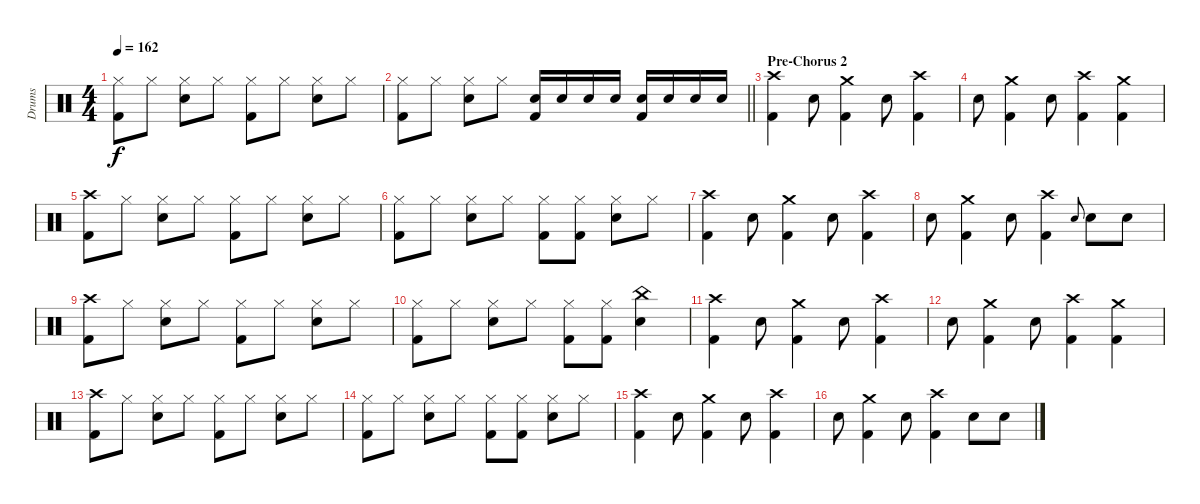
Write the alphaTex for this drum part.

\track ("Drums" "Drums") {instrument percussion}
\staff {score}
\articulation defaults
\ts (4 4)
\tempo 162
\clef neutral
\ks c
("Hi-Hat (closed)" "Kick (hit) 2").8{dy f} "Hi-Hat (closed)".8 ("Hi-Hat (closed)" "Electric Snare (hit)").8 "Hi-Hat (closed)".8 ("Hi-Hat (closed)" "Kick (hit) 2").8 "Hi-Hat (closed)".8 ("Hi-Hat (closed)" "Electric Snare (hit)").8 "Hi-Hat (closed)".8 |
\barLineRight lightlight
("Hi-Hat (closed)" "Kick (hit) 2").8 "Hi-Hat (closed)".8 ("Hi-Hat (closed)" "Electric Snare (hit)").8 "Hi-Hat (closed)".8 ("Electric Snare (hit)" "Kick (hit) 2").16 "Electric Snare (hit)".16 "Electric Snare (hit)".16 "Electric Snare (hit)".16 ("Electric Snare (hit)" "Kick (hit) 2").16 "Electric Snare (hit)".16 "Electric Snare (hit)".16 "Electric Snare (hit)".16 |
\section ("" "Pre-Chorus 2")
("Crash high (hit)" "Kick (hit) 2").4 "Electric Snare (hit)".8 ("Crash medium (hit)" "Kick (hit) 2").4 "Electric Snare (hit)".8 ("Crash high (hit)" "Kick (hit) 2").4 |
"Electric Snare (hit)".8 ("Crash medium (hit)" "Kick (hit) 2").4 "Electric Snare (hit)".8 ("Crash high (hit)" "Kick (hit) 2").4 ("Crash medium (hit)" "Kick (hit) 2").4 |
("Crash high (hit)" "Kick (hit) 2").8 "Hi-Hat (closed)".8 ("Hi-Hat (closed)" "Electric Snare (hit)").8 "Hi-Hat (closed)".8 ("Hi-Hat (closed)" "Kick (hit) 2").8 "Hi-Hat (closed)".8 ("Hi-Hat (closed)" "Electric Snare (hit)").8 "Hi-Hat (closed)".8 |
("Hi-Hat (closed)" "Kick (hit) 2").8 "Hi-Hat (closed)".8 ("Hi-Hat (closed)" "Electric Snare (hit)").8 "Hi-Hat (closed)".8 ("Hi-Hat (closed)" "Kick (hit) 2").8 ("Hi-Hat (closed)" "Kick (hit) 2").8 ("Hi-Hat (closed)" "Electric Snare (hit)").8 "Hi-Hat (closed)".8 |
("Crash high (hit)" "Kick (hit) 2").4 "Electric Snare (hit)".8 ("Crash medium (hit)" "Kick (hit) 2").4 "Electric Snare (hit)".8 ("Crash high (hit)" "Kick (hit) 2").4 |
"Electric Snare (hit)".8 ("Crash medium (hit)" "Kick (hit) 2").4 "Electric Snare (hit)".8 ("Crash high (hit)" "Kick (hit) 2").4 "Electric Snare (hit)".8{gr onbeat} "Electric Snare (hit)".8 "Electric Snare (hit)".8 |
("Crash high (hit)" "Kick (hit) 2").8 "Hi-Hat (closed)".8 ("Hi-Hat (closed)" "Electric Snare (hit)").8 "Hi-Hat (closed)".8 ("Hi-Hat (closed)" "Kick (hit) 2").8 "Hi-Hat (closed)".8 ("Hi-Hat (closed)" "Electric Snare (hit)").8 "Hi-Hat (closed)".8 |
("Hi-Hat (closed)" "Kick (hit) 2").8 "Hi-Hat (closed)".8 ("Hi-Hat (closed)" "Electric Snare (hit)").8 "Hi-Hat (closed)".8 ("Hi-Hat (closed)" "Kick (hit) 2").8 ("Hi-Hat (closed)" "Kick (hit) 2").8 ("China (hit)" "Electric Snare (hit)").4 |
("Crash high (hit)" "Kick (hit) 2").4 "Electric Snare (hit)".8 ("Crash medium (hit)" "Kick (hit) 2").4 "Electric Snare (hit)".8 ("Crash high (hit)" "Kick (hit) 2").4 |
"Electric Snare (hit)".8 ("Crash medium (hit)" "Kick (hit) 2").4 "Electric Snare (hit)".8 ("Crash high (hit)" "Kick (hit) 2").4 ("Crash medium (hit)" "Kick (hit) 2").4 |
("Crash high (hit)" "Kick (hit) 2").8 "Hi-Hat (closed)".8 ("Hi-Hat (closed)" "Electric Snare (hit)").8 "Hi-Hat (closed)".8 ("Hi-Hat (closed)" "Kick (hit) 2").8 "Hi-Hat (closed)".8 ("Hi-Hat (closed)" "Electric Snare (hit)").8 "Hi-Hat (closed)".8 |
("Hi-Hat (closed)" "Kick (hit) 2").8 "Hi-Hat (closed)".8 ("Hi-Hat (closed)" "Electric Snare (hit)").8 "Hi-Hat (closed)".8 ("Hi-Hat (closed)" "Kick (hit) 2").8 ("Hi-Hat (closed)" "Kick (hit) 2").8 ("Hi-Hat (closed)" "Electric Snare (hit)").8 "Hi-Hat (closed)".8 |
("Crash high (hit)" "Kick (hit) 2").4 "Electric Snare (hit)".8 ("Crash medium (hit)" "Kick (hit) 2").4 "Electric Snare (hit)".8 ("Crash high (hit)" "Kick (hit) 2").4 |
"Electric Snare (hit)".8 ("Crash medium (hit)" "Kick (hit) 2").4 "Electric Snare (hit)".8 ("Crash high (hit)" "Kick (hit) 2").4 "Electric Snare (hit)".8 "Electric Snare (hit)".8
